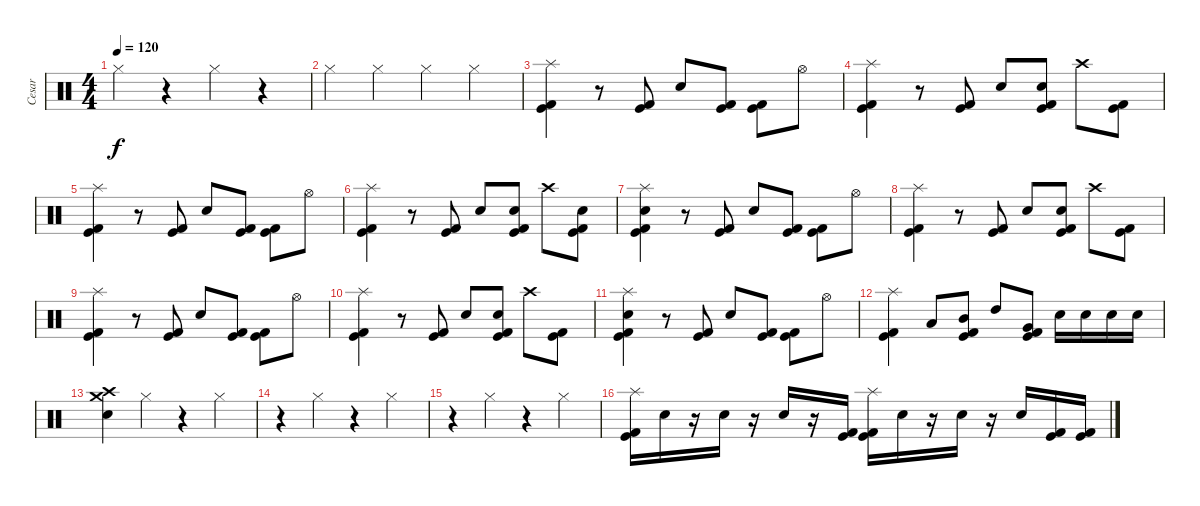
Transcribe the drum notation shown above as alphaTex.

\track ("Cesar" "Cesar") {instrument percussion}
\staff {score}
\articulation defaults
\ts (4 4)
\tempo 120
\clef neutral
\ks c "Hi-Hat (closed)".4{dy f}
r.4 "Hi-Hat (closed)".4 r.4 |
"Hi-Hat (closed)".4 "Hi-Hat (closed)".4 "Hi-Hat (closed)".4 "Hi-Hat (closed)".4 |
("Splash (hit)" "Kick (hit) 2" "Kick (hit)").4 r.8 ("Kick (hit) 2" "Kick (hit)").8 "Electric Snare (hit)".8 ("Kick (hit) 2" "Kick (hit)").8 ("Kick (hit)" "Kick (hit) 2").8 "Hi-Hat (open)".8 |
("Splash (hit)" "Kick (hit) 2" "Kick (hit)").4 r.8 ("Kick (hit) 2" "Kick (hit)").8 "Electric Snare (hit)".8 ("Electric Snare (hit)" "Kick (hit) 2" "Kick (hit)").8 "Crash high (hit)".8 ("Kick (hit) 2" "Kick (hit)").8 |
("Splash (hit)" "Kick (hit) 2" "Kick (hit)").4 r.8 ("Kick (hit) 2" "Kick (hit)").8 "Electric Snare (hit)".8 ("Kick (hit) 2" "Kick (hit)").8 ("Kick (hit)" "Kick (hit) 2").8 "Hi-Hat (open)".8 |
("Splash (hit)" "Kick (hit) 2" "Kick (hit)").4 r.8 ("Kick (hit) 2" "Kick (hit)").8 "Electric Snare (hit)".8 ("Electric Snare (hit)" "Kick (hit) 2" "Kick (hit)").8 "Crash high (hit)".8 ("Electric Snare (hit)" "Kick (hit) 2" "Kick (hit)").8 |
("Splash (hit)" "Electric Snare (hit)" "Kick (hit) 2" "Kick (hit)").4 r.8 ("Kick (hit) 2" "Kick (hit)").8 "Electric Snare (hit)".8 ("Kick (hit) 2" "Kick (hit)").8 ("Kick (hit)" "Kick (hit) 2").8 "Hi-Hat (open)".8 |
("Splash (hit)" "Kick (hit) 2" "Kick (hit)").4 r.8 ("Kick (hit) 2" "Kick (hit)").8 "Electric Snare (hit)".8 ("Electric Snare (hit)" "Kick (hit) 2" "Kick (hit)").8 "Crash high (hit)".8 ("Kick (hit) 2" "Kick (hit)").8 |
("Splash (hit)" "Kick (hit) 2" "Kick (hit)").4 r.8 ("Kick (hit) 2" "Kick (hit)").8 "Electric Snare (hit)".8 ("Kick (hit) 2" "Kick (hit)").8 ("Kick (hit)" "Kick (hit) 2").8 "Hi-Hat (open)".8 |
("Splash (hit)" "Kick (hit) 2" "Kick (hit)").4 r.8 ("Kick (hit) 2" "Kick (hit)").8 "Electric Snare (hit)".8 ("Electric Snare (hit)" "Kick (hit) 2" "Kick (hit)").8 "Crash high (hit)".8 ("Kick (hit) 2" "Kick (hit)").8 |
("Splash (hit)" "Electric Snare (hit)" "Kick (hit) 2" "Kick (hit)").4 r.8 ("Kick (hit) 2" "Kick (hit)").8 "Electric Snare (hit)".8 ("Kick (hit) 2" "Kick (hit)").8 ("Kick (hit)" "Kick (hit) 2").8 "Hi-Hat (open)".8 |
("Splash (hit)" "Kick (hit) 2" "Kick (hit)").4 "Low Tom (hit)".8 ("Mid Tom (hit)" "Kick (hit) 2" "Kick (hit)").8 "High Tom (hit)".8 ("Very Low Tom (hit)" "Kick (hit) 2" "Kick (hit)").8 "Electric Snare (hit)".16 "Electric Snare (hit)".16 "Electric Snare (hit)".16 "Electric Snare (hit)".16 |
("Crash high (hit)" "Crash medium (hit)" "Electric Snare (hit)").4 "Hi-Hat (closed)".4 r.4 "Hi-Hat (closed)".4 |
r.4 "Hi-Hat (closed)".4 r.4 "Hi-Hat (closed)".4 |
r.4 "Hi-Hat (closed)".4 r.4 "Hi-Hat (closed)".4 |
("Splash (hit)" "Kick (hit) 2" "Kick (hit)").16 "Electric Snare (hit)".16 r.16 "Electric Snare (hit)".16 r.16 "Electric Snare (hit)".16 r.16 ("Kick (hit) 2" "Kick (hit)").16 ("Splash (hit)" "Kick (hit) 2" "Kick (hit)").16 "Electric Snare (hit)".16 r.16 "Electric Snare (hit)".16 r.16 "Electric Snare (hit)".16 ("Kick (hit) 2" "Kick (hit)").16 ("Kick (hit) 2" "Kick (hit)").16
